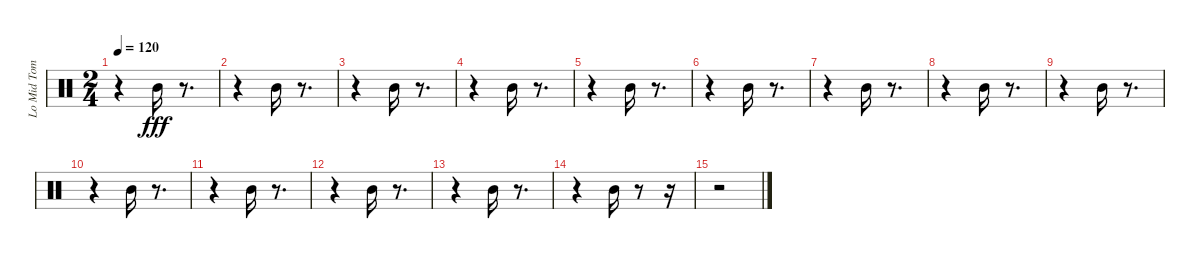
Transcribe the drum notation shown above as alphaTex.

\track ("Lo Mid Tom (1) (1) (1) (1)" "Lo Mid Tom") {instrument percussion}
\staff {score}
\articulation defaults
\ts (2 4)
\tempo 120
\clef neutral
\ks c
r.4{dy fff} "Mid Tom (hit)".16 r.8{d} |
r.4 "Mid Tom (hit)".16 r.8{d} |
r.4 "Mid Tom (hit)".16 r.8{d} |
r.4 "Mid Tom (hit)".16 r.8{d} |
r.4 "Mid Tom (hit)".16 r.8{d} |
r.4 "Mid Tom (hit)".16 r.8{d} |
r.4 "Mid Tom (hit)".16 r.8{d} |
r.4 "Mid Tom (hit)".16 r.8{d} |
r.4 "Mid Tom (hit)".16 r.8{d} |
r.4 "Mid Tom (hit)".16 r.8{d} |
r.4 "Mid Tom (hit)".16 r.8{d} |
r.4 "Mid Tom (hit)".16 r.8{d} |
r.4 "Mid Tom (hit)".16 r.8{d} |
r.4 "Mid Tom (hit)".16 r.8 r.16 |
r.2
